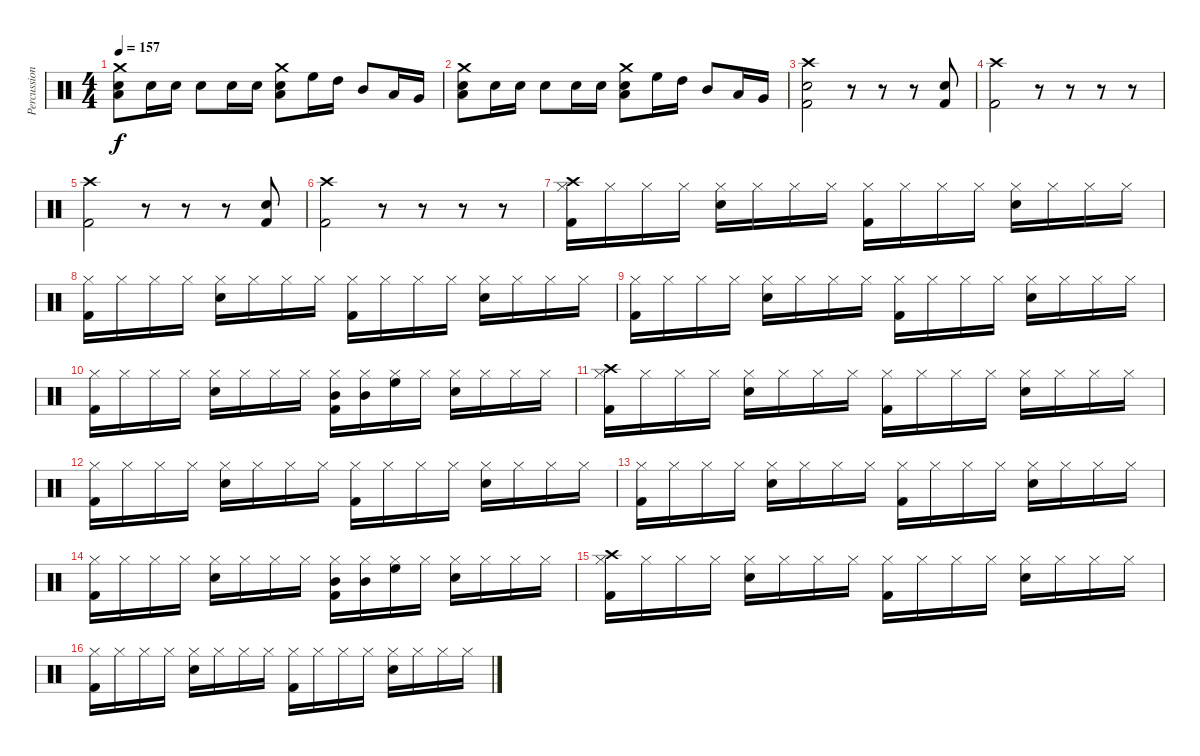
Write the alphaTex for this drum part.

\track ("Percussion" "Percussion") {instrument percussion}
\staff {score}
\articulation defaults
\ts (4 4)
\tempo 157
\clef neutral
\ks c
("Low Floor Tom (hit)" "Snare (hit) 2" "Crash medium (hit)").8{dy f} "Electric Snare (hit)".16 "Electric Snare (hit)".16 "Electric Snare (hit)".8 "Snare (hit) 2".16 "Snare (hit) 2".16 ("Low Floor Tom (hit)" "Snare (hit) 2" "Crash medium (hit)").8 "High Floor Tom (hit)".16 "High Tom (hit)".16 "Mid Tom (hit)".8 "Low Tom (hit)".16 "Very Low Tom (hit)".16 |
("Low Floor Tom (hit)" "Snare (hit) 2" "Crash medium (hit)").8 "Electric Snare (hit)".16 "Electric Snare (hit)".16 "Electric Snare (hit)".8 "Snare (hit) 2".16 "Snare (hit) 2".16 ("Low Floor Tom (hit)" "Snare (hit) 2" "Crash medium (hit)").8 "High Floor Tom (hit)".16 "High Tom (hit)".16 "Mid Tom (hit)".8 "Low Tom (hit)".16 "Very Low Tom (hit)".16 |
("Kick (hit) 2" "Electric Snare (hit)" "Crash high (hit)").2 r.8 r.8 r.8 ("Kick (hit) 2" "Electric Snare (hit)").8 |
("Kick (hit) 2" "Crash high (hit)").2 r.8 r.8 r.8 r.8 |
("Kick (hit) 2" "Crash high (hit)").2 r.8 r.8 r.8 ("Kick (hit) 2" "Electric Snare (hit)").8 |
("Kick (hit) 2" "Crash high (hit)").2 r.8 r.8 r.8 r.8 |
("Kick (hit) 2" "Hi-Hat (closed)" "Crash high (hit)").16 "Hi-Hat (closed)".16 "Hi-Hat (closed)".16 "Hi-Hat (closed)".16 ("Electric Snare (hit)" "Hi-Hat (closed)").16 "Hi-Hat (closed)".16 "Hi-Hat (closed)".16 "Hi-Hat (closed)".16 ("Kick (hit) 2" "Hi-Hat (closed)").16 "Hi-Hat (closed)".16 "Hi-Hat (closed)".16 "Hi-Hat (closed)".16 ("Electric Snare (hit)" "Hi-Hat (closed)").16 "Hi-Hat (closed)".16 "Hi-Hat (closed)".16 "Hi-Hat (closed)".16 |
("Kick (hit) 2" "Hi-Hat (closed)").16 "Hi-Hat (closed)".16 "Hi-Hat (closed)".16 "Hi-Hat (closed)".16 ("Electric Snare (hit)" "Hi-Hat (closed)").16 "Hi-Hat (closed)".16 "Hi-Hat (closed)".16 "Hi-Hat (closed)".16 ("Kick (hit) 2" "Hi-Hat (closed)").16 "Hi-Hat (closed)".16 "Hi-Hat (closed)".16 "Hi-Hat (closed)".16 ("Electric Snare (hit)" "Hi-Hat (closed)").16 "Hi-Hat (closed)".16 "Hi-Hat (closed)".16 "Hi-Hat (closed)".16 |
("Kick (hit) 2" "Hi-Hat (closed)").16 "Hi-Hat (closed)".16 "Hi-Hat (closed)".16 "Hi-Hat (closed)".16 ("Electric Snare (hit)" "Hi-Hat (closed)").16 "Hi-Hat (closed)".16 "Hi-Hat (closed)".16 "Hi-Hat (closed)".16 ("Kick (hit) 2" "Hi-Hat (closed)").16 "Hi-Hat (closed)".16 "Hi-Hat (closed)".16 "Hi-Hat (closed)".16 ("Electric Snare (hit)" "Hi-Hat (closed)").16 "Hi-Hat (closed)".16 "Hi-Hat (closed)".16 "Hi-Hat (closed)".16 |
("Kick (hit) 2" "Hi-Hat (closed)").16 "Hi-Hat (closed)".16 "Hi-Hat (closed)".16 "Hi-Hat (closed)".16 ("Electric Snare (hit)" "Hi-Hat (closed)").16 "Hi-Hat (closed)".16 "Hi-Hat (closed)".16 "Hi-Hat (closed)".16 ("Kick (hit) 2" "Hi-Hat (closed)" "Mid Tom (hit)").16 ("Hi-Hat (closed)" "Mid Tom (hit)").16 ("Hi-Hat (closed)" "High Floor Tom (hit)").16 "Hi-Hat (closed)".16 ("Electric Snare (hit)" "Hi-Hat (closed)").16 "Hi-Hat (closed)".16 "Hi-Hat (closed)".16 "Hi-Hat (closed)".16 |
("Kick (hit) 2" "Hi-Hat (closed)" "Crash high (hit)").16 "Hi-Hat (closed)".16 "Hi-Hat (closed)".16 "Hi-Hat (closed)".16 ("Electric Snare (hit)" "Hi-Hat (closed)").16 "Hi-Hat (closed)".16 "Hi-Hat (closed)".16 "Hi-Hat (closed)".16 ("Kick (hit) 2" "Hi-Hat (closed)").16 "Hi-Hat (closed)".16 "Hi-Hat (closed)".16 "Hi-Hat (closed)".16 ("Electric Snare (hit)" "Hi-Hat (closed)").16 "Hi-Hat (closed)".16 "Hi-Hat (closed)".16 "Hi-Hat (closed)".16 |
("Kick (hit) 2" "Hi-Hat (closed)").16 "Hi-Hat (closed)".16 "Hi-Hat (closed)".16 "Hi-Hat (closed)".16 ("Electric Snare (hit)" "Hi-Hat (closed)").16 "Hi-Hat (closed)".16 "Hi-Hat (closed)".16 "Hi-Hat (closed)".16 ("Kick (hit) 2" "Hi-Hat (closed)").16 "Hi-Hat (closed)".16 "Hi-Hat (closed)".16 "Hi-Hat (closed)".16 ("Electric Snare (hit)" "Hi-Hat (closed)").16 "Hi-Hat (closed)".16 "Hi-Hat (closed)".16 "Hi-Hat (closed)".16 |
("Kick (hit) 2" "Hi-Hat (closed)").16 "Hi-Hat (closed)".16 "Hi-Hat (closed)".16 "Hi-Hat (closed)".16 ("Electric Snare (hit)" "Hi-Hat (closed)").16 "Hi-Hat (closed)".16 "Hi-Hat (closed)".16 "Hi-Hat (closed)".16 ("Kick (hit) 2" "Hi-Hat (closed)").16 "Hi-Hat (closed)".16 "Hi-Hat (closed)".16 "Hi-Hat (closed)".16 ("Electric Snare (hit)" "Hi-Hat (closed)").16 "Hi-Hat (closed)".16 "Hi-Hat (closed)".16 "Hi-Hat (closed)".16 |
("Kick (hit) 2" "Hi-Hat (closed)").16 "Hi-Hat (closed)".16 "Hi-Hat (closed)".16 "Hi-Hat (closed)".16 ("Electric Snare (hit)" "Hi-Hat (closed)").16 "Hi-Hat (closed)".16 "Hi-Hat (closed)".16 "Hi-Hat (closed)".16 ("Kick (hit) 2" "Hi-Hat (closed)" "Mid Tom (hit)").16 ("Hi-Hat (closed)" "Mid Tom (hit)").16 ("Hi-Hat (closed)" "High Floor Tom (hit)").16 "Hi-Hat (closed)".16 ("Electric Snare (hit)" "Hi-Hat (closed)").16 "Hi-Hat (closed)".16 "Hi-Hat (closed)".16 "Hi-Hat (closed)".16 |
("Kick (hit) 2" "Hi-Hat (closed)" "Crash high (hit)").16 "Hi-Hat (closed)".16 "Hi-Hat (closed)".16 "Hi-Hat (closed)".16 ("Electric Snare (hit)" "Hi-Hat (closed)").16 "Hi-Hat (closed)".16 "Hi-Hat (closed)".16 "Hi-Hat (closed)".16 ("Kick (hit) 2" "Hi-Hat (closed)").16 "Hi-Hat (closed)".16 "Hi-Hat (closed)".16 "Hi-Hat (closed)".16 ("Electric Snare (hit)" "Hi-Hat (closed)").16 "Hi-Hat (closed)".16 "Hi-Hat (closed)".16 "Hi-Hat (closed)".16 |
("Kick (hit) 2" "Hi-Hat (closed)").16 "Hi-Hat (closed)".16 "Hi-Hat (closed)".16 "Hi-Hat (closed)".16 ("Electric Snare (hit)" "Hi-Hat (closed)").16 "Hi-Hat (closed)".16 "Hi-Hat (closed)".16 "Hi-Hat (closed)".16 ("Kick (hit) 2" "Hi-Hat (closed)").16 "Hi-Hat (closed)".16 "Hi-Hat (closed)".16 "Hi-Hat (closed)".16 ("Electric Snare (hit)" "Hi-Hat (closed)").16 "Hi-Hat (closed)".16 "Hi-Hat (closed)".16 "Hi-Hat (closed)".16
